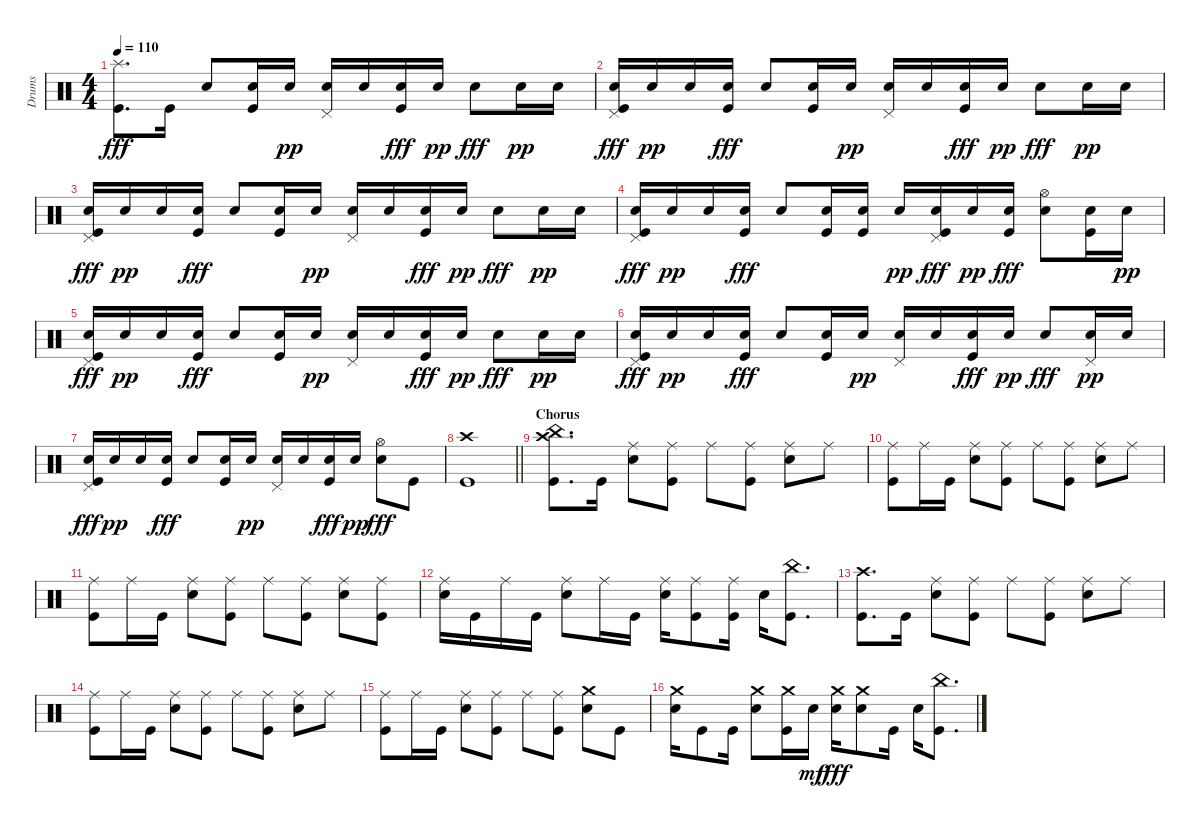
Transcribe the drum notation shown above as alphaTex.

\track ("Drums" "Drums") {instrument percussion}
\staff {score}
\articulation defaults
\ts (4 4)
\tempo 110
\clef neutral
\ks c
("Splash (hit)" "Kick (hit)").8{d dy fff} "Kick (hit)".16 "Snare (hit) 2".8 ("Snare (hit) 2" "Kick (hit)").16 "Snare (hit) 2".16{dy pp} ("Pedal Hi-Hat (hit)" "Snare (hit) 2").16 "Snare (hit) 2".16 ("Snare (hit) 2" "Kick (hit)").16{dy fff} "Snare (hit) 2".16{dy pp} "Snare (hit) 2".8{dy fff} "Snare (hit) 2".16{dy pp} "Snare (hit) 2".16 |
("Pedal Hi-Hat (hit)" "Snare (hit) 2" "Kick (hit)").16{dy fff} "Snare (hit) 2".16{dy pp} "Snare (hit) 2".16 ("Snare (hit) 2" "Kick (hit)").16{dy fff} "Snare (hit) 2".8 ("Snare (hit) 2" "Kick (hit)").16 "Snare (hit) 2".16{dy pp} ("Pedal Hi-Hat (hit)" "Snare (hit) 2").16 "Snare (hit) 2".16 ("Snare (hit) 2" "Kick (hit)").16{dy fff} "Snare (hit) 2".16{dy pp} "Snare (hit) 2".8{dy fff} "Snare (hit) 2".16{dy pp} "Snare (hit) 2".16 |
("Pedal Hi-Hat (hit)" "Snare (hit) 2" "Kick (hit)").16{dy fff} "Snare (hit) 2".16{dy pp} "Snare (hit) 2".16 ("Snare (hit) 2" "Kick (hit)").16{dy fff} "Snare (hit) 2".8 ("Snare (hit) 2" "Kick (hit)").16 "Snare (hit) 2".16{dy pp} ("Pedal Hi-Hat (hit)" "Snare (hit) 2").16 "Snare (hit) 2".16 ("Snare (hit) 2" "Kick (hit)").16{dy fff} "Snare (hit) 2".16{dy pp} "Snare (hit) 2".8{dy fff} "Snare (hit) 2".16{dy pp} "Snare (hit) 2".16 |
("Pedal Hi-Hat (hit)" "Snare (hit) 2" "Kick (hit)").16{dy fff} "Snare (hit) 2".16{dy pp} "Snare (hit) 2".16 ("Snare (hit) 2" "Kick (hit)").16{dy fff} "Snare (hit) 2".8 ("Snare (hit) 2" "Kick (hit)").16 ("Snare (hit) 2" "Kick (hit)").16 "Snare (hit) 2".16{dy pp} ("Pedal Hi-Hat (hit)" "Snare (hit) 2" "Kick (hit)").16{dy fff} "Snare (hit) 2".16{dy pp} ("Snare (hit) 2" "Kick (hit)").16{dy fff} ("Hi-Hat (open)" "Snare (hit) 2").8 ("Snare (hit) 2" "Kick (hit)").16 "Snare (hit) 2".16{dy pp} |
("Pedal Hi-Hat (hit)" "Snare (hit) 2" "Kick (hit)").16{dy fff} "Snare (hit) 2".16{dy pp} "Snare (hit) 2".16 ("Snare (hit) 2" "Kick (hit)").16{dy fff} "Snare (hit) 2".8 ("Snare (hit) 2" "Kick (hit)").16 "Snare (hit) 2".16{dy pp} ("Pedal Hi-Hat (hit)" "Snare (hit) 2").16 "Snare (hit) 2".16 ("Snare (hit) 2" "Kick (hit)").16{dy fff} "Snare (hit) 2".16{dy pp} "Snare (hit) 2".8{dy fff} "Snare (hit) 2".16{dy pp} "Snare (hit) 2".16 |
("Pedal Hi-Hat (hit)" "Snare (hit) 2" "Kick (hit)").16{dy fff} "Snare (hit) 2".16{dy pp} "Snare (hit) 2".16 ("Snare (hit) 2" "Kick (hit)").16{dy fff} "Snare (hit) 2".8 ("Snare (hit) 2" "Kick (hit)").16 "Snare (hit) 2".16{dy pp} ("Pedal Hi-Hat (hit)" "Snare (hit) 2").16 "Snare (hit) 2".16 ("Snare (hit) 2" "Kick (hit)").16{dy fff} "Snare (hit) 2".16{dy pp} "Snare (hit) 2".8{dy fff} ("Pedal Hi-Hat (hit)" "Snare (hit) 2").16{dy pp} "Snare (hit) 2".16 |
("Pedal Hi-Hat (hit)" "Snare (hit) 2" "Kick (hit)").16{dy fff} "Snare (hit) 2".16{dy pp} "Snare (hit) 2".16 ("Snare (hit) 2" "Kick (hit)").16{dy fff} "Snare (hit) 2".8 ("Snare (hit) 2" "Kick (hit)").16 "Snare (hit) 2".16{dy pp} ("Pedal Hi-Hat (hit)" "Snare (hit) 2").16 "Snare (hit) 2".16 ("Snare (hit) 2" "Kick (hit)").16{dy fff} "Snare (hit) 2".16{dy pp} ("Hi-Hat (open)" "Snare (hit) 2").8{dy fff} "Kick (hit)".8 |
\barLineRight lightlight
("Crash high (hit)" "Kick (hit)").1 |
\section ("" "Chorus")
("China (hit)" "Crash high (hit)" "Kick (hit)").8{d} "Kick (hit)".16 ("Ride (middle)" "Snare (hit) 2").8 ("Ride (middle)" "Kick (hit)").8 "Ride (middle)".8 ("Ride (middle)" "Kick (hit)").8 ("Ride (middle)" "Snare (hit) 2").8 "Ride (middle)".8 |
("Ride (middle)" "Kick (hit)").8 "Ride (middle)".16 "Kick (hit)".16 ("Ride (middle)" "Snare (hit) 2").8 ("Ride (middle)" "Kick (hit)").8 "Ride (middle)".8 ("Ride (middle)" "Kick (hit)").8 ("Ride (middle)" "Snare (hit) 2").8 "Ride (middle)".8 |
("Ride (middle)" "Kick (hit)").8 "Ride (middle)".16 "Kick (hit)".16 ("Ride (middle)" "Snare (hit) 2").8 ("Ride (middle)" "Kick (hit)").8 "Ride (middle)".8 ("Ride (middle)" "Kick (hit)").8 ("Ride (middle)" "Snare (hit) 2").8 ("Ride (middle)" "Kick (hit)").8 |
("Ride (middle)" "Snare (hit) 2").16 "Kick (hit)".16 "Ride (middle)".16 "Kick (hit)".16 ("Ride (middle)" "Snare (hit) 2").8 "Ride (middle)".16 "Kick (hit)".16 ("Ride (middle)" "Snare (hit) 2").16 ("Ride (middle)" "Kick (hit)").8 ("Ride (middle)" "Kick (hit)").16 "Snare (hit) 2".16 ("China (hit)" "Kick (hit)").8{d} |
("Crash high (hit)" "Kick (hit)").8{d} "Kick (hit)".16 ("Ride (middle)" "Snare (hit) 2").8 ("Ride (middle)" "Kick (hit)").8 "Ride (middle)".8 ("Ride (middle)" "Kick (hit)").8 ("Ride (middle)" "Snare (hit) 2").8 "Ride (middle)".8 |
("Ride (middle)" "Kick (hit)").8 "Ride (middle)".16 "Kick (hit)".16 ("Ride (middle)" "Snare (hit) 2").8 ("Ride (middle)" "Kick (hit)").8 "Ride (middle)".8 ("Ride (middle)" "Kick (hit)").8 ("Ride (middle)" "Snare (hit) 2").8 "Ride (middle)".8 |
("Ride (middle)" "Kick (hit)").8 "Ride (middle)".16 "Kick (hit)".16 ("Ride (middle)" "Snare (hit) 2").8 ("Ride (middle)" "Kick (hit)").8 "Ride (middle)".8 ("Ride (middle)" "Kick (hit)").8 ("Crash medium (hit)" "Snare (hit) 2").8 "Kick (hit)".8 |
("Crash medium (hit)" "Snare (hit) 2").16 "Kick (hit)".8 "Kick (hit)".16 ("Crash medium (hit)" "Snare (hit) 2").8 ("Crash medium (hit)" "Kick (hit)").16 "Snare (hit) 2".16{dy mf} ("Crash medium (hit)" "Snare (hit) 2").16{dy fff} ("Crash medium (hit)" "Snare (hit) 2").8 "Kick (hit)".16 "Snare (hit) 2".16 ("China (hit)" "Kick (hit)").8{d}
